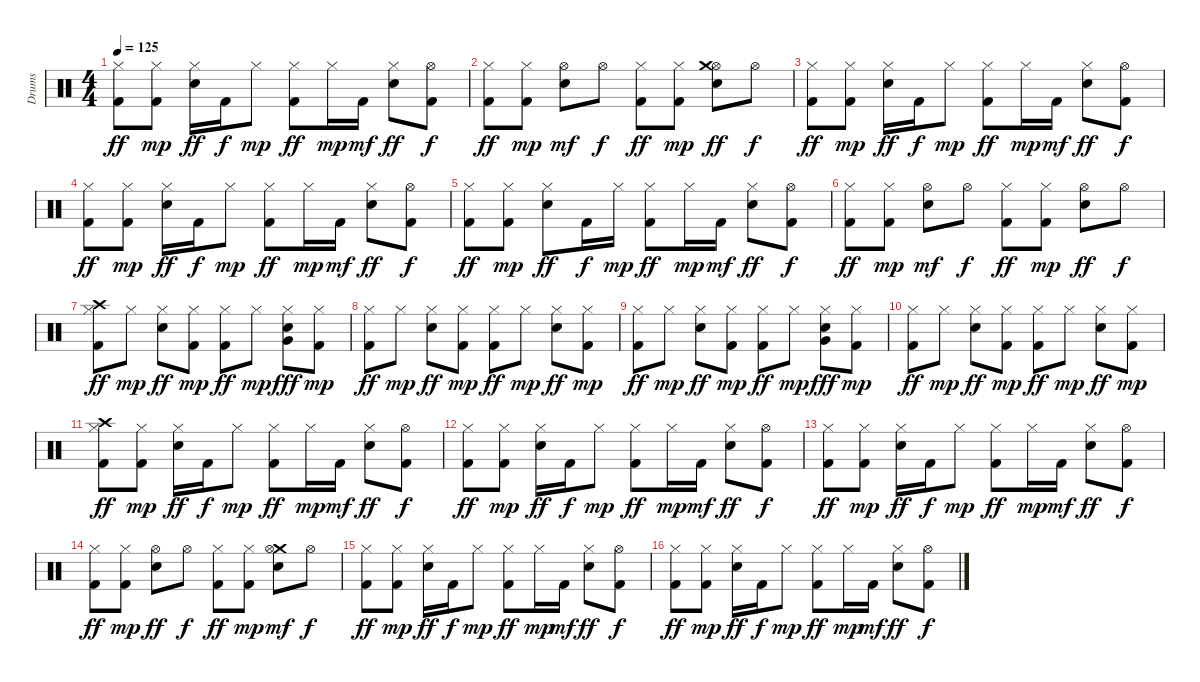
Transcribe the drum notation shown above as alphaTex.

\track ("Drums" "Drums") {instrument percussion}
\staff {score}
\articulation defaults
\ts (4 4)
\tempo 125
\clef neutral
\ks c
("Kick (hit) 2" "Hi-Hat (closed)").8{dy ff} ("Hi-Hat (closed)" "Kick (hit) 2").8{dy mp} ("Hi-Hat (closed)" "Snare (hit) 2").16{dy ff} "Kick (hit) 2".16{dy f} "Hi-Hat (closed)".8{dy mp} ("Kick (hit) 2" "Hi-Hat (closed)").8{dy ff} "Hi-Hat (closed)".16{dy mp} "Kick (hit) 2".16{dy mf} ("Snare (hit) 2" "Hi-Hat (closed)").8{dy ff} ("Hi-Hat (open)" "Kick (hit) 2").8{dy f} |
("Kick (hit) 2" "Hi-Hat (closed)").8{dy ff} ("Kick (hit) 2" "Hi-Hat (closed)").8{dy mp} ("Snare (hit) 2" "Hi-Hat (open)").8{dy mf} "Hi-Hat (open)".8{dy f} ("Kick (hit) 2" "Hi-Hat (closed)").8{dy ff} ("Hi-Hat (closed)" "Kick (hit) 2").8{dy mp} ("Hi-Hat (open)" "Snare (hit) 2" "Crash medium (hit)").8{dy ff} "Hi-Hat (open)".8{dy f} |
("Hi-Hat (closed)" "Kick (hit) 2").8{dy ff} ("Kick (hit) 2" "Hi-Hat (closed)").8{dy mp} ("Snare (hit) 2" "Hi-Hat (closed)").16{dy ff} "Kick (hit) 2".16{dy f} "Hi-Hat (closed)".8{dy mp} ("Hi-Hat (closed)" "Kick (hit) 2").8{dy ff} "Hi-Hat (closed)".16{dy mp} "Kick (hit) 2".16{dy mf} ("Hi-Hat (closed)" "Snare (hit) 2").8{dy ff} ("Kick (hit) 2" "Hi-Hat (open)").8{dy f} |
("Hi-Hat (closed)" "Kick (hit) 2").8{dy ff} ("Kick (hit) 2" "Hi-Hat (closed)").8{dy mp} ("Hi-Hat (closed)" "Snare (hit) 2").16{dy ff} "Kick (hit) 2".16{dy f} "Hi-Hat (closed)".8{dy mp} ("Hi-Hat (closed)" "Kick (hit) 2").8{dy ff} "Hi-Hat (closed)".16{dy mp} "Kick (hit) 2".16{dy mf} ("Snare (hit) 2" "Hi-Hat (closed)").8{dy ff} ("Hi-Hat (open)" "Kick (hit) 2").8{dy f} |
("Kick (hit) 2" "Hi-Hat (closed)").8{dy ff} ("Kick (hit) 2" "Hi-Hat (closed)").8{dy mp} ("Snare (hit) 2" "Hi-Hat (closed)").8{dy ff} "Kick (hit) 2".16{dy f} "Hi-Hat (closed)".16{dy mp} ("Kick (hit) 2" "Hi-Hat (closed)").8{dy ff} "Hi-Hat (closed)".16{dy mp} "Kick (hit) 2".16{dy mf} ("Snare (hit) 2" "Hi-Hat (closed)").8{dy ff} ("Hi-Hat (open)" "Kick (hit) 2").8{dy f} |
("Kick (hit) 2" "Hi-Hat (closed)").8{dy ff} ("Kick (hit) 2" "Hi-Hat (closed)").8{dy mp} ("Snare (hit) 2" "Hi-Hat (open)").8{dy mf} "Hi-Hat (open)".8{dy f} ("Kick (hit) 2" "Hi-Hat (closed)").8{dy ff} ("Hi-Hat (closed)" "Kick (hit) 2").8{dy mp} ("Hi-Hat (open)" "Snare (hit) 2").8{dy ff} "Hi-Hat (open)".8{dy f} |
("Kick (hit) 2" "Crash high (hit)" "Hi-Hat (closed)").8{dy ff} "Hi-Hat (closed)".8{dy mp} ("Snare (hit) 2" "Hi-Hat (closed)").8{dy ff} ("Hi-Hat (closed)" "Kick (hit) 2").8{dy mp} ("Kick (hit) 2" "Hi-Hat (closed)").8{dy ff} "Hi-Hat (closed)".8{dy mp} ("Snare (hit) 2" "Hi-Hat (closed)" "Very Low Tom (hit)").8{dy fff} ("Kick (hit) 2" "Hi-Hat (closed)").8{dy mp} |
("Kick (hit) 2" "Hi-Hat (closed)").8{dy ff} "Hi-Hat (closed)".8{dy mp} ("Hi-Hat (closed)" "Snare (hit) 2").8{dy ff} ("Kick (hit) 2" "Hi-Hat (closed)").8{dy mp} ("Kick (hit) 2" "Hi-Hat (closed)").8{dy ff} "Hi-Hat (closed)".8{dy mp} ("Snare (hit) 2" "Hi-Hat (closed)").8{dy ff} ("Hi-Hat (closed)" "Kick (hit) 2").8{dy mp} |
("Kick (hit) 2" "Hi-Hat (closed)").8{dy ff} "Hi-Hat (closed)".8{dy mp} ("Snare (hit) 2" "Hi-Hat (closed)").8{dy ff} ("Kick (hit) 2" "Hi-Hat (closed)").8{dy mp} ("Kick (hit) 2" "Hi-Hat (closed)").8{dy ff} "Hi-Hat (closed)".8{dy mp} ("Snare (hit) 2" "Hi-Hat (closed)" "Very Low Tom (hit)").8{dy fff} ("Hi-Hat (closed)" "Kick (hit) 2").8{dy mp} |
("Kick (hit) 2" "Hi-Hat (closed)").8{dy ff} "Hi-Hat (closed)".8{dy mp} ("Hi-Hat (closed)" "Snare (hit) 2").8{dy ff} ("Hi-Hat (closed)" "Kick (hit) 2").8{dy mp} ("Hi-Hat (closed)" "Kick (hit) 2").8{dy ff} "Hi-Hat (closed)".8{dy mp} ("Snare (hit) 2" "Hi-Hat (closed)").8{dy ff} ("Kick (hit) 2" "Hi-Hat (closed)").8{dy mp} |
("Crash high (hit)" "Hi-Hat (closed)" "Kick (hit) 2").8{dy ff} ("Hi-Hat (closed)" "Kick (hit) 2").8{dy mp} ("Hi-Hat (closed)" "Snare (hit) 2").16{dy ff} "Kick (hit) 2".16{dy f} "Hi-Hat (closed)".8{dy mp} ("Kick (hit) 2" "Hi-Hat (closed)").8{dy ff} "Hi-Hat (closed)".16{dy mp} "Kick (hit) 2".16{dy mf} ("Snare (hit) 2" "Hi-Hat (closed)").8{dy ff} ("Kick (hit) 2" "Hi-Hat (open)").8{dy f} |
("Hi-Hat (closed)" "Kick (hit) 2").8{dy ff} ("Kick (hit) 2" "Hi-Hat (closed)").8{dy mp} ("Snare (hit) 2" "Hi-Hat (closed)").16{dy ff} "Kick (hit) 2".16{dy f} "Hi-Hat (closed)".8{dy mp} ("Kick (hit) 2" "Hi-Hat (closed)").8{dy ff} "Hi-Hat (closed)".16{dy mp} "Kick (hit) 2".16{dy mf} ("Snare (hit) 2" "Hi-Hat (closed)").8{dy ff} ("Kick (hit) 2" "Hi-Hat (open)").8{dy f} |
("Hi-Hat (closed)" "Kick (hit) 2").8{dy ff} ("Kick (hit) 2" "Hi-Hat (closed)").8{dy mp} ("Snare (hit) 2" "Hi-Hat (closed)").16{dy ff} "Kick (hit) 2".16{dy f} "Hi-Hat (closed)".8{dy mp} ("Hi-Hat (closed)" "Kick (hit) 2").8{dy ff} "Hi-Hat (closed)".16{dy mp} "Kick (hit) 2".16{dy mf} ("Hi-Hat (closed)" "Snare (hit) 2").8{dy ff} ("Hi-Hat (open)" "Kick (hit) 2").8{dy f} |
("Kick (hit) 2" "Hi-Hat (closed)").8{dy ff} ("Hi-Hat (closed)" "Kick (hit) 2").8{dy mp} ("Hi-Hat (open)" "Snare (hit) 2").8{dy ff} "Hi-Hat (open)".8{dy f} ("Hi-Hat (closed)" "Kick (hit) 2").8{dy ff} ("Kick (hit) 2" "Hi-Hat (closed)").8{dy mp} ("Crash medium (hit)" "Snare (hit) 2" "Hi-Hat (open)").8{dy mf} "Hi-Hat (open)".8{dy f} |
("Kick (hit) 2" "Hi-Hat (closed)").8{dy ff} ("Kick (hit) 2" "Hi-Hat (closed)").8{dy mp} ("Snare (hit) 2" "Hi-Hat (closed)").16{dy ff} "Kick (hit) 2".16{dy f} "Hi-Hat (closed)".8{dy mp} ("Kick (hit) 2" "Hi-Hat (closed)").8{dy ff} "Hi-Hat (closed)".16{dy mp} "Kick (hit) 2".16{dy mf} ("Hi-Hat (closed)" "Snare (hit) 2").8{dy ff} ("Hi-Hat (open)" "Kick (hit) 2").8{dy f} |
("Kick (hit) 2" "Hi-Hat (closed)").8{dy ff} ("Kick (hit) 2" "Hi-Hat (closed)").8{dy mp} ("Snare (hit) 2" "Hi-Hat (closed)").16{dy ff} "Kick (hit) 2".16{dy f} "Hi-Hat (closed)".8{dy mp} ("Hi-Hat (closed)" "Kick (hit) 2").8{dy ff} "Hi-Hat (closed)".16{dy mp} "Kick (hit) 2".16{dy mf} ("Hi-Hat (closed)" "Snare (hit) 2").8{dy ff} ("Hi-Hat (open)" "Kick (hit) 2").8{dy f}
